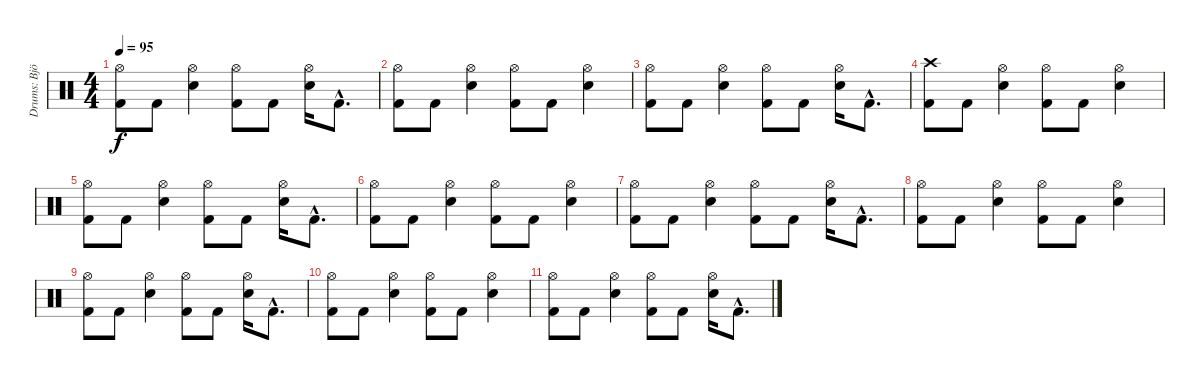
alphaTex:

\track ("Drums: Björn Fryklund" "Drums: Bjö") {instrument percussion}
\staff {score}
\articulation defaults
\ts (4 4)
\tempo 95
\clef neutral
\ks c
("Hi-Hat (open)" "Kick (hit) 2").8{dy f} "Kick (hit) 2".8 ("Hi-Hat (open)" "Snare (hit) 2").4 ("Hi-Hat (open)" "Kick (hit) 2").8 "Kick (hit) 2".8 ("Hi-Hat (open)" "Snare (hit) 2").16 "Kick (hit) 2"{hac}.8{d} |
("Hi-Hat (open)" "Kick (hit) 2").8 "Kick (hit) 2".8 ("Hi-Hat (open)" "Snare (hit) 2").4 ("Hi-Hat (open)" "Kick (hit) 2").8 "Kick (hit) 2".8 ("Hi-Hat (open)" "Snare (hit) 2").4 |
("Hi-Hat (open)" "Kick (hit) 2").8 "Kick (hit) 2".8 ("Hi-Hat (open)" "Snare (hit) 2").4 ("Hi-Hat (open)" "Kick (hit) 2").8 "Kick (hit) 2".8 ("Hi-Hat (open)" "Snare (hit) 2").16 "Kick (hit) 2"{hac}.8{d} |
("Crash high (hit)" "Kick (hit) 2").8 "Kick (hit) 2".8 ("Hi-Hat (open)" "Snare (hit) 2").4 ("Hi-Hat (open)" "Kick (hit) 2").8 "Kick (hit) 2".8 ("Hi-Hat (open)" "Snare (hit) 2").4 |
("Hi-Hat (open)" "Kick (hit) 2").8 "Kick (hit) 2".8 ("Hi-Hat (open)" "Snare (hit) 2").4 ("Hi-Hat (open)" "Kick (hit) 2").8 "Kick (hit) 2".8 ("Hi-Hat (open)" "Snare (hit) 2").16 "Kick (hit) 2"{hac}.8{d} |
("Hi-Hat (open)" "Kick (hit) 2").8 "Kick (hit) 2".8 ("Hi-Hat (open)" "Snare (hit) 2").4 ("Hi-Hat (open)" "Kick (hit) 2").8 "Kick (hit) 2".8 ("Hi-Hat (open)" "Snare (hit) 2").4 |
("Hi-Hat (open)" "Kick (hit) 2").8 "Kick (hit) 2".8 ("Hi-Hat (open)" "Snare (hit) 2").4 ("Hi-Hat (open)" "Kick (hit) 2").8 "Kick (hit) 2".8 ("Hi-Hat (open)" "Snare (hit) 2").16 "Kick (hit) 2"{hac}.8{d} |
("Hi-Hat (open)" "Kick (hit) 2").8{volume 6} "Kick (hit) 2".8 ("Hi-Hat (open)" "Snare (hit) 2").4 ("Hi-Hat (open)" "Kick (hit) 2").8 "Kick (hit) 2".8 ("Hi-Hat (open)" "Snare (hit) 2").4 |
("Hi-Hat (open)" "Kick (hit) 2").8 "Kick (hit) 2".8 ("Hi-Hat (open)" "Snare (hit) 2").4 ("Hi-Hat (open)" "Kick (hit) 2").8 "Kick (hit) 2".8 ("Hi-Hat (open)" "Snare (hit) 2").16 "Kick (hit) 2"{hac}.8{d} |
("Hi-Hat (open)" "Kick (hit) 2").8{volume 0} "Kick (hit) 2".8 ("Hi-Hat (open)" "Snare (hit) 2").4 ("Hi-Hat (open)" "Kick (hit) 2").8 "Kick (hit) 2".8 ("Hi-Hat (open)" "Snare (hit) 2").4 |
("Hi-Hat (open)" "Kick (hit) 2").8 "Kick (hit) 2".8 ("Hi-Hat (open)" "Snare (hit) 2").4 ("Hi-Hat (open)" "Kick (hit) 2").8 "Kick (hit) 2".8 ("Hi-Hat (open)" "Snare (hit) 2").16 "Kick (hit) 2"{hac}.8{d}
